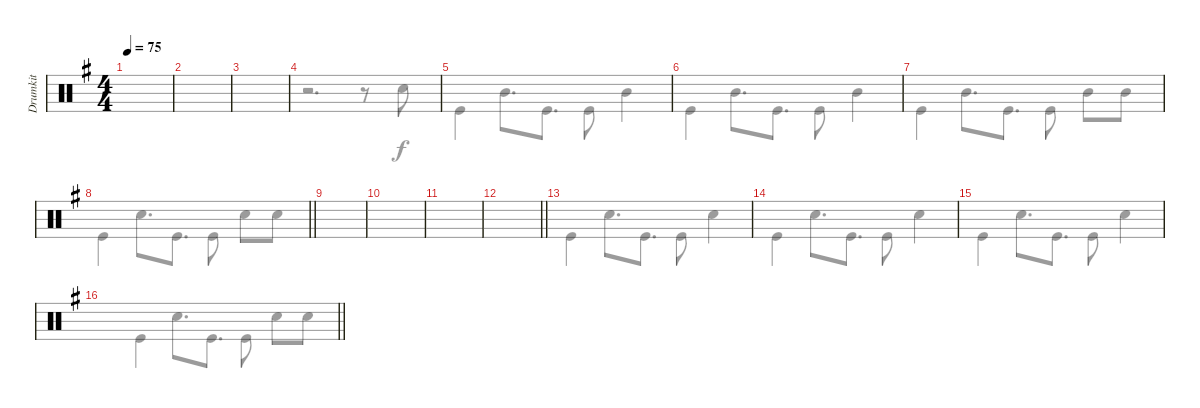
\track ("Drumkit" "Drumkit") {instrument percussion}
\staff {score}
\articulation defaults
\voice
\ts (4 4)
\tempo 75
\clef neutral
\ks eminor
|
|
|
|
|
|
|
\barLineRight lightlight
|
|
|
|
\barLineRight lightlight
|
|
|
|
\barLineRight lightlight
\voice
\clef neutral
\ks eminor
|
|
|
r.2{d} r.8 "Snare (hit) 2".8 |
"Kick (hit)".4 "Mid Tom (hit)".8{d} "Kick (hit)".8{d} "Kick (hit)".8 "Mid Tom (hit)".4 |
"Kick (hit)".4 "Mid Tom (hit)".8{d} "Kick (hit)".8{d} "Kick (hit)".8 "Mid Tom (hit)".4 |
"Kick (hit)".4 "Mid Tom (hit)".8{d} "Kick (hit)".8{d} "Kick (hit)".8 "Mid Tom (hit)".8 "Mid Tom (hit)".8 |
\barLineRight lightlight "Kick (hit)".4 "Snare (hit) 2".8{d} "Kick (hit)".8{d} "Kick (hit)".8 "Snare (hit) 2".8 "Snare (hit) 2".8
|
|
|
|
\barLineRight lightlight
|
"Kick (hit)".4 "Snare (hit) 2".8{d} "Kick (hit)".8{d} "Kick (hit)".8 "Snare (hit) 2".4 |
"Kick (hit)".4 "Snare (hit) 2".8{d} "Kick (hit)".8{d} "Kick (hit)".8 "Snare (hit) 2".4 |
"Kick (hit)".4 "Snare (hit) 2".8{d} "Kick (hit)".8{d} "Kick (hit)".8 "Snare (hit) 2".4 |
\barLineRight lightlight "Kick (hit)".4 "Snare (hit) 2".8{d} "Kick (hit)".8{d} "Kick (hit)".8 "Snare (hit) 2".8 "Snare (hit) 2".8
